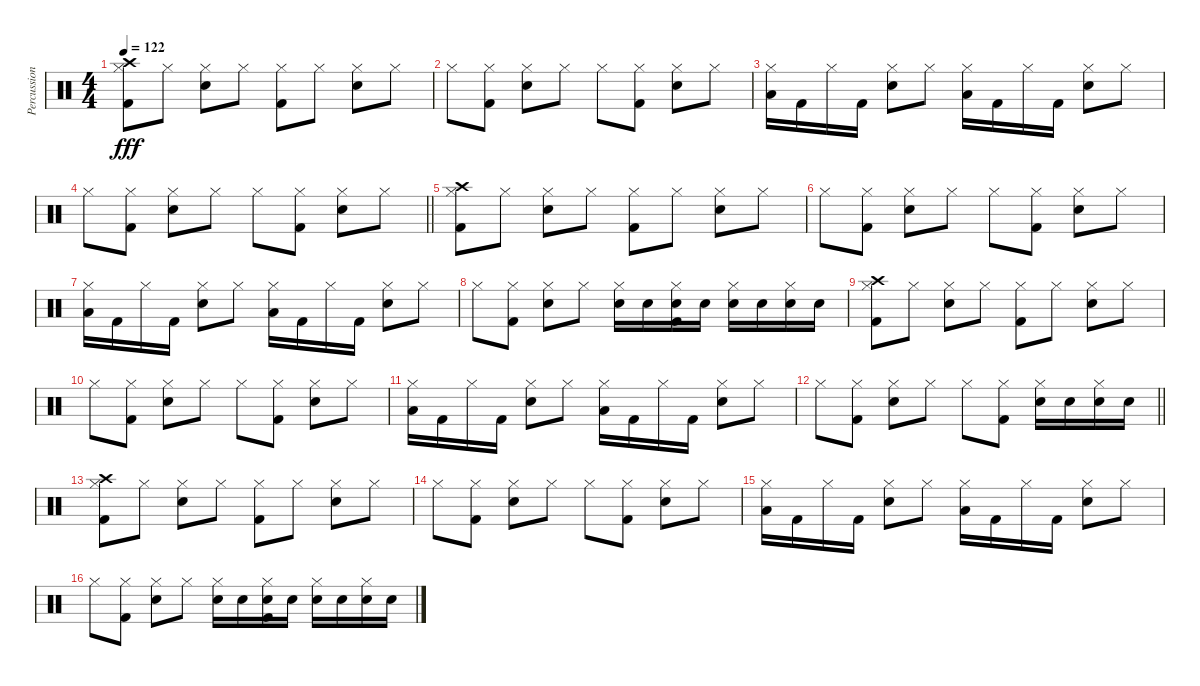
\track ("Percussion" "Percussion") {instrument percussion}
\staff {score}
\articulation defaults
\ts (4 4)
\tempo 122
\clef neutral
\ks c
("Crash high (hit)" "Hi-Hat (closed)" "Kick (hit) 2").8{dy fff} "Hi-Hat (closed)".8 ("Hi-Hat (closed)" "Electric Snare (hit)").8 "Hi-Hat (closed)".8 ("Hi-Hat (closed)" "Kick (hit) 2").8 "Hi-Hat (closed)".8 ("Hi-Hat (closed)" "Electric Snare (hit)").8 "Hi-Hat (closed)".8 |
"Hi-Hat (closed)".8 ("Hi-Hat (closed)" "Kick (hit) 2").8 ("Hi-Hat (closed)" "Electric Snare (hit)").8 "Hi-Hat (closed)".8 "Hi-Hat (closed)".8 ("Hi-Hat (closed)" "Kick (hit) 2").8 ("Hi-Hat (closed)" "Electric Snare (hit)").8 "Hi-Hat (closed)".8 |
("Hi-Hat (closed)" "Low Tom (hit)").16 "Kick (hit) 2".16 "Hi-Hat (closed)".16 "Kick (hit) 2".16 ("Hi-Hat (closed)" "Electric Snare (hit)").8 "Hi-Hat (closed)".8 ("Hi-Hat (closed)" "Low Tom (hit)").16 "Kick (hit) 2".16 "Hi-Hat (closed)".16 "Kick (hit) 2".16 ("Hi-Hat (closed)" "Electric Snare (hit)").8 "Hi-Hat (closed)".8 |
\barLineRight lightlight "Hi-Hat (closed)".8
("Hi-Hat (closed)" "Kick (hit) 2").8 ("Hi-Hat (closed)" "Electric Snare (hit)").8 "Hi-Hat (closed)".8 "Hi-Hat (closed)".8 ("Hi-Hat (closed)" "Kick (hit) 2").8 ("Hi-Hat (closed)" "Electric Snare (hit)").8 "Hi-Hat (closed)".8 |
("Crash high (hit)" "Hi-Hat (closed)" "Kick (hit) 2").8 "Hi-Hat (closed)".8 ("Hi-Hat (closed)" "Electric Snare (hit)").8 "Hi-Hat (closed)".8 ("Hi-Hat (closed)" "Kick (hit) 2").8 "Hi-Hat (closed)".8 ("Hi-Hat (closed)" "Electric Snare (hit)").8 "Hi-Hat (closed)".8 |
"Hi-Hat (closed)".8 ("Hi-Hat (closed)" "Kick (hit) 2").8 ("Hi-Hat (closed)" "Electric Snare (hit)").8 "Hi-Hat (closed)".8 "Hi-Hat (closed)".8 ("Hi-Hat (closed)" "Kick (hit) 2").8 ("Hi-Hat (closed)" "Electric Snare (hit)").8 "Hi-Hat (closed)".8 |
("Hi-Hat (closed)" "Low Tom (hit)").16 "Kick (hit) 2".16 "Hi-Hat (closed)".16 "Kick (hit) 2".16 ("Hi-Hat (closed)" "Electric Snare (hit)").8 "Hi-Hat (closed)".8 ("Hi-Hat (closed)" "Low Tom (hit)").16 "Kick (hit) 2".16 "Hi-Hat (closed)".16 "Kick (hit) 2".16 ("Hi-Hat (closed)" "Electric Snare (hit)").8 "Hi-Hat (closed)".8 |
"Hi-Hat (closed)".8 ("Hi-Hat (closed)" "Kick (hit) 2").8 ("Hi-Hat (closed)" "Electric Snare (hit)").8 "Hi-Hat (closed)".8 ("Hi-Hat (closed)" "Electric Snare (hit)").16 "Electric Snare (hit)".16 ("Hi-Hat (closed)" "Electric Snare (hit)" "Kick (hit) 2").16 "Electric Snare (hit)".16 ("Hi-Hat (closed)" "Electric Snare (hit)").16 "Electric Snare (hit)".16 ("Hi-Hat (closed)" "Electric Snare (hit)").16 "Electric Snare (hit)".16 |
("Crash high (hit)" "Hi-Hat (closed)" "Kick (hit) 2").8 "Hi-Hat (closed)".8 ("Hi-Hat (closed)" "Electric Snare (hit)").8 "Hi-Hat (closed)".8 ("Hi-Hat (closed)" "Kick (hit) 2").8 "Hi-Hat (closed)".8 ("Hi-Hat (closed)" "Electric Snare (hit)").8 "Hi-Hat (closed)".8 |
"Hi-Hat (closed)".8 ("Hi-Hat (closed)" "Kick (hit) 2").8 ("Hi-Hat (closed)" "Electric Snare (hit)").8 "Hi-Hat (closed)".8 "Hi-Hat (closed)".8 ("Hi-Hat (closed)" "Kick (hit) 2").8 ("Hi-Hat (closed)" "Electric Snare (hit)").8 "Hi-Hat (closed)".8 |
("Hi-Hat (closed)" "Low Tom (hit)").16 "Kick (hit) 2".16 "Hi-Hat (closed)".16 "Kick (hit) 2".16 ("Hi-Hat (closed)" "Electric Snare (hit)").8 "Hi-Hat (closed)".8 ("Hi-Hat (closed)" "Low Tom (hit)").16 "Kick (hit) 2".16 "Hi-Hat (closed)".16 "Kick (hit) 2".16 ("Hi-Hat (closed)" "Electric Snare (hit)").8 "Hi-Hat (closed)".8 |
\barLineRight lightlight "Hi-Hat (closed)".8
("Hi-Hat (closed)" "Kick (hit) 2").8 ("Hi-Hat (closed)" "Electric Snare (hit)").8 "Hi-Hat (closed)".8 "Hi-Hat (closed)".8 ("Hi-Hat (closed)" "Kick (hit) 2").8 ("Hi-Hat (closed)" "Electric Snare (hit)").16 "Electric Snare (hit)".16 ("Hi-Hat (closed)" "Electric Snare (hit)").16 "Electric Snare (hit)".16 |
("Crash high (hit)" "Hi-Hat (closed)" "Kick (hit) 2").8 "Hi-Hat (closed)".8 ("Hi-Hat (closed)" "Electric Snare (hit)").8 "Hi-Hat (closed)".8 ("Hi-Hat (closed)" "Kick (hit) 2").8 "Hi-Hat (closed)".8 ("Hi-Hat (closed)" "Electric Snare (hit)").8 "Hi-Hat (closed)".8 |
"Hi-Hat (closed)".8 ("Hi-Hat (closed)" "Kick (hit) 2").8 ("Hi-Hat (closed)" "Electric Snare (hit)").8 "Hi-Hat (closed)".8 "Hi-Hat (closed)".8 ("Hi-Hat (closed)" "Kick (hit) 2").8 ("Hi-Hat (closed)" "Electric Snare (hit)").8 "Hi-Hat (closed)".8 |
("Hi-Hat (closed)" "Low Tom (hit)").16 "Kick (hit) 2".16 "Hi-Hat (closed)".16 "Kick (hit) 2".16 ("Hi-Hat (closed)" "Electric Snare (hit)").8 "Hi-Hat (closed)".8 ("Hi-Hat (closed)" "Low Tom (hit)").16 "Kick (hit) 2".16 "Hi-Hat (closed)".16 "Kick (hit) 2".16 ("Hi-Hat (closed)" "Electric Snare (hit)").8 "Hi-Hat (closed)".8 |
"Hi-Hat (closed)".8 ("Hi-Hat (closed)" "Kick (hit) 2").8 ("Hi-Hat (closed)" "Electric Snare (hit)").8 "Hi-Hat (closed)".8 ("Hi-Hat (closed)" "Electric Snare (hit)").16 "Electric Snare (hit)".16 ("Hi-Hat (closed)" "Electric Snare (hit)" "Kick (hit) 2").16 "Electric Snare (hit)".16 ("Hi-Hat (closed)" "Electric Snare (hit)").16 "Electric Snare (hit)".16 ("Hi-Hat (closed)" "Electric Snare (hit)").16 "Electric Snare (hit)".16
